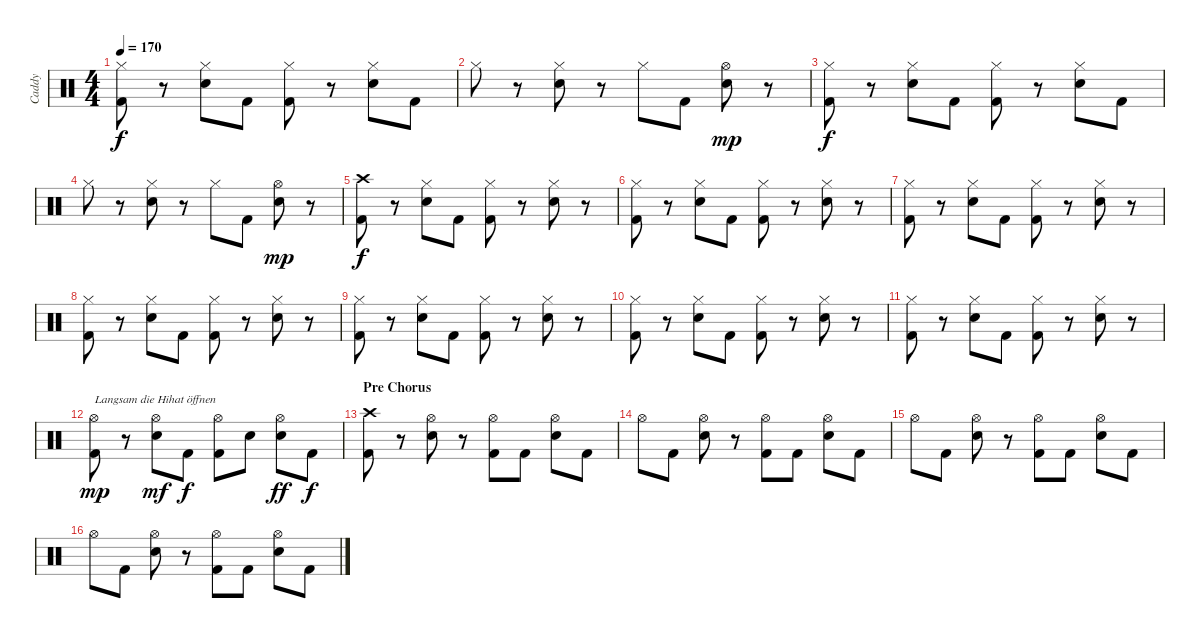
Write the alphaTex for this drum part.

\track ("Caddy" "Caddy") {instrument percussion}
\staff {score}
\articulation defaults
\ts (4 4)
\tempo 170
\clef neutral
\ks c
("Hi-Hat (closed)" "Kick (hit) 2").8{dy f} r.8 ("Hi-Hat (closed)" "Electric Snare (hit)").8 "Kick (hit) 2".8 ("Hi-Hat (closed)" "Kick (hit) 2").8 r.8 ("Hi-Hat (closed)" "Electric Snare (hit)").8 "Kick (hit) 2".8 |
"Hi-Hat (closed)".8 r.8 ("Hi-Hat (closed)" "Electric Snare (hit)").8 r.8 "Hi-Hat (closed)".8 "Kick (hit) 2".8 ("Hi-Hat (open)" "Electric Snare (hit)").8{dy mp} r.8 |
("Hi-Hat (closed)" "Kick (hit) 2").8{dy f} r.8 ("Hi-Hat (closed)" "Electric Snare (hit)").8 "Kick (hit) 2".8 ("Hi-Hat (closed)" "Kick (hit) 2").8 r.8 ("Hi-Hat (closed)" "Electric Snare (hit)").8 "Kick (hit) 2".8 |
"Hi-Hat (closed)".8 r.8 ("Hi-Hat (closed)" "Electric Snare (hit)").8 r.8 "Hi-Hat (closed)".8 "Kick (hit) 2".8 ("Hi-Hat (open)" "Electric Snare (hit)").8{dy mp} r.8 |
("Crash high (hit)" "Kick (hit) 2").8{dy f} r.8 ("Hi-Hat (closed)" "Electric Snare (hit)").8 "Kick (hit) 2".8 ("Hi-Hat (closed)" "Kick (hit) 2").8 r.8 ("Hi-Hat (closed)" "Electric Snare (hit)").8 r.8 |
("Hi-Hat (closed)" "Kick (hit) 2").8 r.8 ("Hi-Hat (closed)" "Electric Snare (hit)").8 "Kick (hit) 2".8 ("Hi-Hat (closed)" "Kick (hit) 2").8 r.8 ("Hi-Hat (closed)" "Electric Snare (hit)").8 r.8 |
("Hi-Hat (closed)" "Kick (hit) 2").8 r.8 ("Hi-Hat (closed)" "Electric Snare (hit)").8 "Kick (hit) 2".8 ("Hi-Hat (closed)" "Kick (hit) 2").8 r.8 ("Hi-Hat (closed)" "Electric Snare (hit)").8 r.8 |
("Hi-Hat (closed)" "Kick (hit) 2").8 r.8 ("Hi-Hat (closed)" "Electric Snare (hit)").8 "Kick (hit) 2".8 ("Hi-Hat (closed)" "Kick (hit) 2").8 r.8 ("Hi-Hat (closed)" "Electric Snare (hit)").8 r.8 |
("Hi-Hat (closed)" "Kick (hit) 2").8 r.8 ("Hi-Hat (closed)" "Electric Snare (hit)").8 "Kick (hit) 2".8 ("Hi-Hat (closed)" "Kick (hit) 2").8 r.8 ("Hi-Hat (closed)" "Electric Snare (hit)").8 r.8 |
("Hi-Hat (closed)" "Kick (hit) 2").8 r.8 ("Hi-Hat (closed)" "Electric Snare (hit)").8 "Kick (hit) 2".8 ("Hi-Hat (closed)" "Kick (hit) 2").8 r.8 ("Hi-Hat (closed)" "Electric Snare (hit)").8 r.8 |
("Hi-Hat (closed)" "Kick (hit) 2").8 r.8 ("Hi-Hat (closed)" "Electric Snare (hit)").8 "Kick (hit) 2".8 ("Hi-Hat (closed)" "Kick (hit) 2").8 r.8 ("Hi-Hat (closed)" "Electric Snare (hit)").8 r.8 |
("Hi-Hat (open)" "Kick (hit) 2").8{txt "Langsam die Hihat öffnen" dy mp} r.8 ("Hi-Hat (open)" "Electric Snare (hit)").8{dy mf} "Kick (hit) 2".8{dy f} ("Hi-Hat (open)" "Kick (hit) 2").8 "Electric Snare (hit)".8 ("Hi-Hat (open)" "Electric Snare (hit)").8{dy ff} "Kick (hit) 2".8{dy f} |
\section ("" "Pre Chorus")
("Crash high (hit)" "Kick (hit) 2").8 r.8 ("Hi-Hat (open)" "Electric Snare (hit)").8 r.8 ("Hi-Hat (open)" "Kick (hit) 2").8 "Kick (hit) 2".8 ("Hi-Hat (open)" "Electric Snare (hit)").8 "Kick (hit) 2".8 |
"Hi-Hat (open)".8 "Kick (hit) 2".8 ("Hi-Hat (open)" "Electric Snare (hit)").8 r.8 ("Hi-Hat (open)" "Kick (hit) 2").8 "Kick (hit) 2".8 ("Hi-Hat (open)" "Electric Snare (hit)").8 "Kick (hit) 2".8 |
"Hi-Hat (open)".8 "Kick (hit) 2".8 ("Hi-Hat (open)" "Electric Snare (hit)").8 r.8 ("Hi-Hat (open)" "Kick (hit) 2").8 "Kick (hit) 2".8 ("Hi-Hat (open)" "Electric Snare (hit)").8 "Kick (hit) 2".8 |
"Hi-Hat (open)".8 "Kick (hit) 2".8 ("Hi-Hat (open)" "Electric Snare (hit)").8 r.8 ("Hi-Hat (open)" "Kick (hit) 2").8 "Kick (hit) 2".8 ("Hi-Hat (open)" "Electric Snare (hit)").8 "Kick (hit) 2".8
